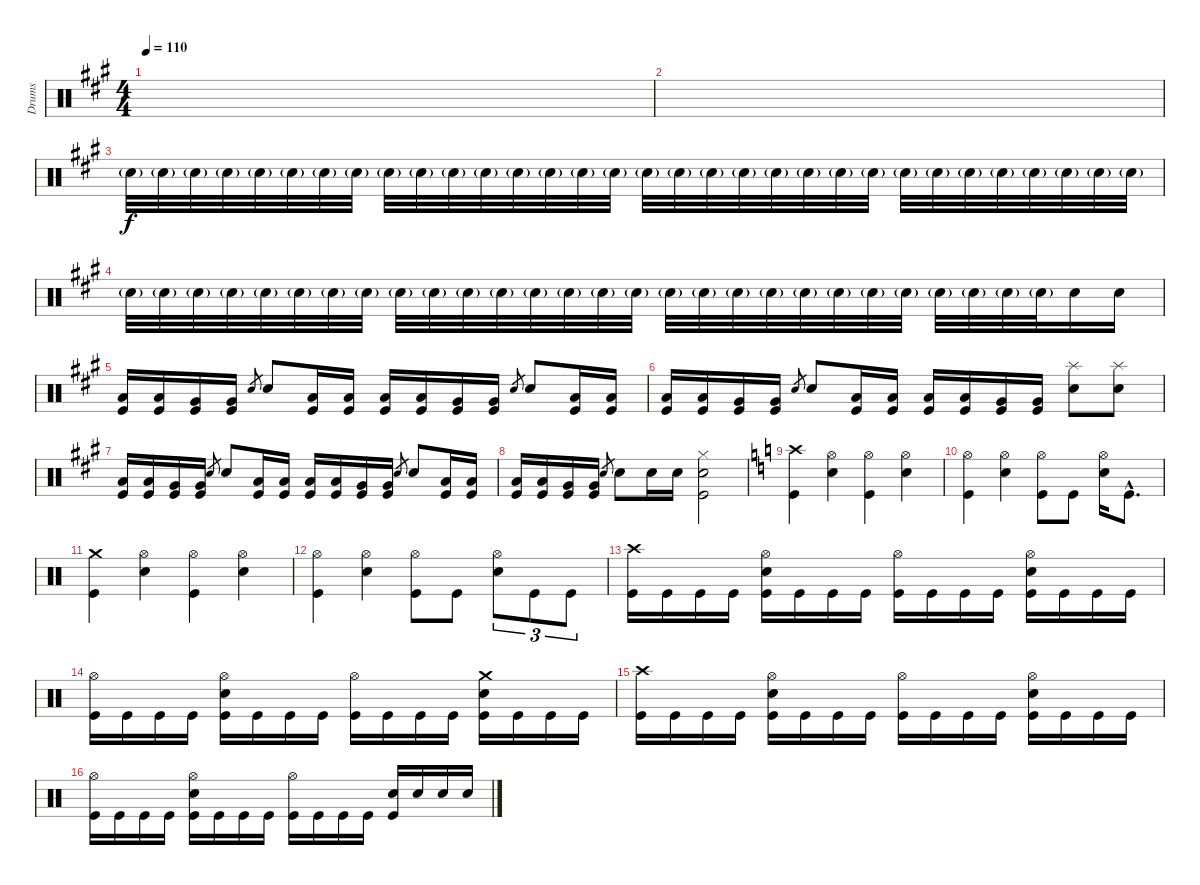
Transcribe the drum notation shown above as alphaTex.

\track ("Drums" "Drums") {instrument percussion}
\staff {score}
\articulation defaults
\ts (4 4)
\tempo 110
\clef neutral
\ks f#minor
|
|
"Snare (hit) 2"{g}.32{volume 14} "Snare (hit) 2"{g}.32 "Snare (hit) 2"{g}.32 "Snare (hit) 2"{g}.32 "Snare (hit) 2"{g}.32 "Snare (hit) 2"{g}.32 "Snare (hit) 2"{g}.32 "Snare (hit) 2"{g}.32 "Snare (hit) 2"{g}.32 "Snare (hit) 2"{g}.32 "Snare (hit) 2"{g}.32 "Snare (hit) 2"{g}.32 "Snare (hit) 2"{g}.32 "Snare (hit) 2"{g}.32 "Snare (hit) 2"{g}.32 "Snare (hit) 2"{g}.32 "Snare (hit) 2"{g}.32 "Snare (hit) 2"{g}.32 "Snare (hit) 2"{g}.32 "Snare (hit) 2"{g}.32 "Snare (hit) 2"{g}.32 "Snare (hit) 2"{g}.32 "Snare (hit) 2"{g}.32 "Snare (hit) 2"{g}.32 "Snare (hit) 2"{g}.32 "Snare (hit) 2"{g}.32 "Snare (hit) 2"{g}.32 "Snare (hit) 2"{g}.32 "Snare (hit) 2"{g}.32 "Snare (hit) 2"{g}.32 "Snare (hit) 2"{g}.32 "Snare (hit) 2"{g}.32 |
"Snare (hit) 2"{g}.32 "Snare (hit) 2"{g}.32 "Snare (hit) 2"{g}.32 "Snare (hit) 2"{g}.32 "Snare (hit) 2"{g}.32 "Snare (hit) 2"{g}.32 "Snare (hit) 2"{g}.32 "Snare (hit) 2"{g}.32 "Snare (hit) 2"{g}.32 "Snare (hit) 2"{g}.32 "Snare (hit) 2"{g}.32 "Snare (hit) 2"{g}.32 "Snare (hit) 2"{g}.32 "Snare (hit) 2"{g}.32 "Snare (hit) 2"{g}.32 "Snare (hit) 2"{g}.32 "Snare (hit) 2"{g}.32 "Snare (hit) 2"{g}.32 "Snare (hit) 2"{g}.32 "Snare (hit) 2"{g}.32 "Snare (hit) 2"{g}.32 "Snare (hit) 2"{g}.32 "Snare (hit) 2"{g}.32 "Snare (hit) 2"{g}.32 "Snare (hit) 2"{g}.32 "Snare (hit) 2"{g}.32 "Snare (hit) 2"{g}.32 "Snare (hit) 2"{g}.32 "Snare (hit) 2".16{dy f} "Snare (hit) 2".16 |
("Low Floor Tom (hit)" "Kick (hit)").16 ("Low Tom (hit)" "Kick (hit)").16 ("Very Low Tom (hit)" "Kick (hit)").16 ("Very Low Tom (hit)" "Kick (hit)").16 "Snare (hit) 2".8{gr} "Snare (hit) 2".8 ("Low Floor Tom (hit)" "Kick (hit)").16 ("Low Tom (hit)" "Kick (hit)").16 ("Low Floor Tom (hit)" "Kick (hit)").16 ("Low Tom (hit)" "Kick (hit)").16 ("Very Low Tom (hit)" "Kick (hit)").16 ("Very Low Tom (hit)" "Kick (hit)").16 "Snare (hit) 2".8{gr} "Snare (hit) 2".8 ("Low Floor Tom (hit)" "Kick (hit)").16 ("Low Tom (hit)" "Kick (hit)").16 |
("Low Floor Tom (hit)" "Kick (hit)").16 ("Low Tom (hit)" "Kick (hit)").16 ("Very Low Tom (hit)" "Kick (hit)").16 ("Very Low Tom (hit)" "Kick (hit)").16 "Snare (hit) 2".8{gr} "Snare (hit) 2".8 ("Low Floor Tom (hit)" "Kick (hit)").16 ("Low Tom (hit)" "Kick (hit)").16 ("Low Floor Tom (hit)" "Kick (hit)").16 ("Low Tom (hit)" "Kick (hit)").16 ("Very Low Tom (hit)" "Kick (hit)").16 ("Very Low Tom (hit)" "Kick (hit)").16 ("Splash (hit)" "Snare (hit) 2").8 ("Splash (hit)" "Snare (hit) 2").8 |
("Low Floor Tom (hit)" "Kick (hit)").16 ("Low Tom (hit)" "Kick (hit)").16 ("Very Low Tom (hit)" "Kick (hit)").16 ("Very Low Tom (hit)" "Kick (hit)").16 "Snare (hit) 2".8{gr} "Snare (hit) 2".8 ("Low Floor Tom (hit)" "Kick (hit)").16 ("Low Tom (hit)" "Kick (hit)").16 ("Low Floor Tom (hit)" "Kick (hit)").16 ("Low Tom (hit)" "Kick (hit)").16 ("Very Low Tom (hit)" "Kick (hit)").16 ("Very Low Tom (hit)" "Kick (hit)").16 "Snare (hit) 2".8{gr} "Snare (hit) 2".8 ("Low Floor Tom (hit)" "Kick (hit)").16 ("Low Tom (hit)" "Kick (hit)").16 |
("Low Floor Tom (hit)" "Kick (hit)").16 ("Low Tom (hit)" "Kick (hit)").16 ("Very Low Tom (hit)" "Kick (hit)").16 ("Very Low Tom (hit)" "Kick (hit)").16 "Snare (hit) 2".8{gr} "Snare (hit) 2".8 "Snare (hit) 2".16 "Snare (hit) 2".16 ("Hi-Hat (closed)" "Snare (hit) 2" "Kick (hit)").2 |
\ks c
("Crash high (hit)" "Kick (hit)").4 ("Hi-Hat (open)" "Snare (hit) 2").4 ("Hi-Hat (open)" "Kick (hit)").4 ("Hi-Hat (open)" "Snare (hit) 2").4 |
("Hi-Hat (open)" "Kick (hit)").4 ("Hi-Hat (open)" "Snare (hit) 2").4 ("Hi-Hat (open)" "Kick (hit)").8 "Kick (hit)".8 ("Hi-Hat (open)" "Snare (hit) 2").16 "Kick (hit)"{hac}.8{d} |
("Crash medium (hit)" "Kick (hit)").4 ("Hi-Hat (open)" "Snare (hit) 2").4 ("Hi-Hat (open)" "Kick (hit)").4 ("Hi-Hat (open)" "Snare (hit) 2").4 |
("Hi-Hat (open)" "Kick (hit)").4 ("Hi-Hat (open)" "Snare (hit) 2").4 ("Hi-Hat (open)" "Kick (hit)").8 "Kick (hit)".8 ("Hi-Hat (open)" "Snare (hit) 2").8{tu (3 2)} "Kick (hit)".8{tu (3 2)} "Kick (hit)".8{tu (3 2)} |
("Crash high (hit)" "Kick (hit)").16 "Kick (hit)".16 "Kick (hit)".16 "Kick (hit)".16 ("Hi-Hat (open)" "Snare (hit) 2" "Kick (hit)").16 "Kick (hit)".16 "Kick (hit)".16 "Kick (hit)".16 ("Hi-Hat (open)" "Kick (hit)").16 "Kick (hit)".16 "Kick (hit)".16 "Kick (hit)".16 ("Hi-Hat (open)" "Snare (hit) 2" "Kick (hit)").16 "Kick (hit)".16 "Kick (hit)".16 "Kick (hit)".16 |
("Hi-Hat (open)" "Kick (hit)").16 "Kick (hit)".16 "Kick (hit)".16 "Kick (hit)".16 ("Hi-Hat (open)" "Snare (hit) 2" "Kick (hit)").16 "Kick (hit)".16 "Kick (hit)".16 "Kick (hit)".16 ("Hi-Hat (open)" "Kick (hit)").16 "Kick (hit)".16 "Kick (hit)".16 "Kick (hit)".16 ("Crash medium (hit)" "Snare (hit) 2" "Kick (hit)").16 "Kick (hit)".16 "Kick (hit)".16 "Kick (hit)".16 |
("Crash high (hit)" "Kick (hit)").16 "Kick (hit)".16 "Kick (hit)".16 "Kick (hit)".16 ("Hi-Hat (open)" "Snare (hit) 2" "Kick (hit)").16 "Kick (hit)".16 "Kick (hit)".16 "Kick (hit)".16 ("Hi-Hat (open)" "Kick (hit)").16 "Kick (hit)".16 "Kick (hit)".16 "Kick (hit)".16 ("Hi-Hat (open)" "Snare (hit) 2" "Kick (hit)").16 "Kick (hit)".16 "Kick (hit)".16 "Kick (hit)".16 |
("Hi-Hat (open)" "Kick (hit)").16 "Kick (hit)".16 "Kick (hit)".16 "Kick (hit)".16 ("Hi-Hat (open)" "Snare (hit) 2" "Kick (hit)").16 "Kick (hit)".16 "Kick (hit)".16 "Kick (hit)".16 ("Hi-Hat (open)" "Kick (hit)").16 "Kick (hit)".16 "Kick (hit)".16 "Kick (hit)".16 ("Snare (hit) 2" "Kick (hit)").16 "Snare (hit) 2".16 "Snare (hit) 2".16 "Snare (hit) 2".16
